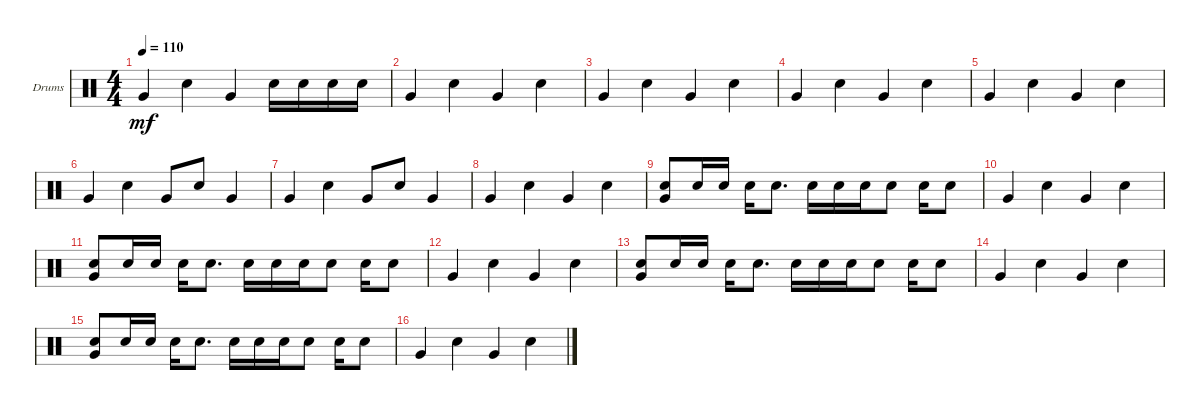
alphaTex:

\defaultSystemsLayout 4
\bracketExtendMode groupsimilarinstruments
\firstSystemTrackNameOrientation horizontal
\otherSystemsTrackNameOrientation horizontal
\track ("Drumkit" "Drums") {instrument percussion}
\staff {score}
\articulation defaults
\ts (4 4)
\tempo 110
\clef neutral
\ks c "Very Low Tom (hit)".4{dy mf} "Snare (hit) 2".4 "Very Low Tom (hit)".4 "Snare (hit) 2".16 "Snare (hit) 2".16 "Snare (hit) 2".16 "Snare (hit) 2".16
|
"Very Low Tom (hit)".4 "Snare (hit) 2".4 "Very Low Tom (hit)".4 "Snare (hit) 2".4 |
"Very Low Tom (hit)".4 "Snare (hit) 2".4 "Very Low Tom (hit)".4 "Snare (hit) 2".4 |
"Very Low Tom (hit)".4 "Snare (hit) 2".4 "Very Low Tom (hit)".4 "Snare (hit) 2".4 |
"Very Low Tom (hit)".4 "Snare (hit) 2".4 "Very Low Tom (hit)".4 "Snare (hit) 2".4 |
"Very Low Tom (hit)".4 "Snare (hit) 2".4 "Very Low Tom (hit)".8 "Snare (hit) 2".8 "Very Low Tom (hit)".4 |
"Very Low Tom (hit)".4 "Snare (hit) 2".4 "Very Low Tom (hit)".8 "Snare (hit) 2".8 "Very Low Tom (hit)".4 |
"Very Low Tom (hit)".4 "Snare (hit) 2".4 "Very Low Tom (hit)".4 "Snare (hit) 2".4 |
("Very Low Tom (hit)" "Snare (hit) 2").8 "Snare (hit) 2".16 "Snare (hit) 2".16 "Snare (hit) 2".16 "Snare (hit) 2".8{d} "Snare (hit) 2".16 "Snare (hit) 2".16 "Snare (hit) 2".16 "Snare (hit) 2".8 "Snare (hit) 2".16 "Snare (hit) 2".8 |
"Very Low Tom (hit)".4 "Snare (hit) 2".4 "Very Low Tom (hit)".4 "Snare (hit) 2".4 |
("Very Low Tom (hit)" "Snare (hit) 2").8 "Snare (hit) 2".16 "Snare (hit) 2".16 "Snare (hit) 2".16 "Snare (hit) 2".8{d} "Snare (hit) 2".16 "Snare (hit) 2".16 "Snare (hit) 2".16 "Snare (hit) 2".8 "Snare (hit) 2".16 "Snare (hit) 2".8 |
"Very Low Tom (hit)".4 "Snare (hit) 2".4 "Very Low Tom (hit)".4 "Snare (hit) 2".4 |
("Very Low Tom (hit)" "Snare (hit) 2").8 "Snare (hit) 2".16 "Snare (hit) 2".16 "Snare (hit) 2".16 "Snare (hit) 2".8{d} "Snare (hit) 2".16 "Snare (hit) 2".16 "Snare (hit) 2".16 "Snare (hit) 2".8 "Snare (hit) 2".16 "Snare (hit) 2".8 |
"Very Low Tom (hit)".4 "Snare (hit) 2".4 "Very Low Tom (hit)".4 "Snare (hit) 2".4 |
("Very Low Tom (hit)" "Snare (hit) 2").8 "Snare (hit) 2".16 "Snare (hit) 2".16 "Snare (hit) 2".16 "Snare (hit) 2".8{d} "Snare (hit) 2".16 "Snare (hit) 2".16 "Snare (hit) 2".16 "Snare (hit) 2".8 "Snare (hit) 2".16 "Snare (hit) 2".8 |
"Very Low Tom (hit)".4 "Snare (hit) 2".4 "Very Low Tom (hit)".4 "Snare (hit) 2".4
